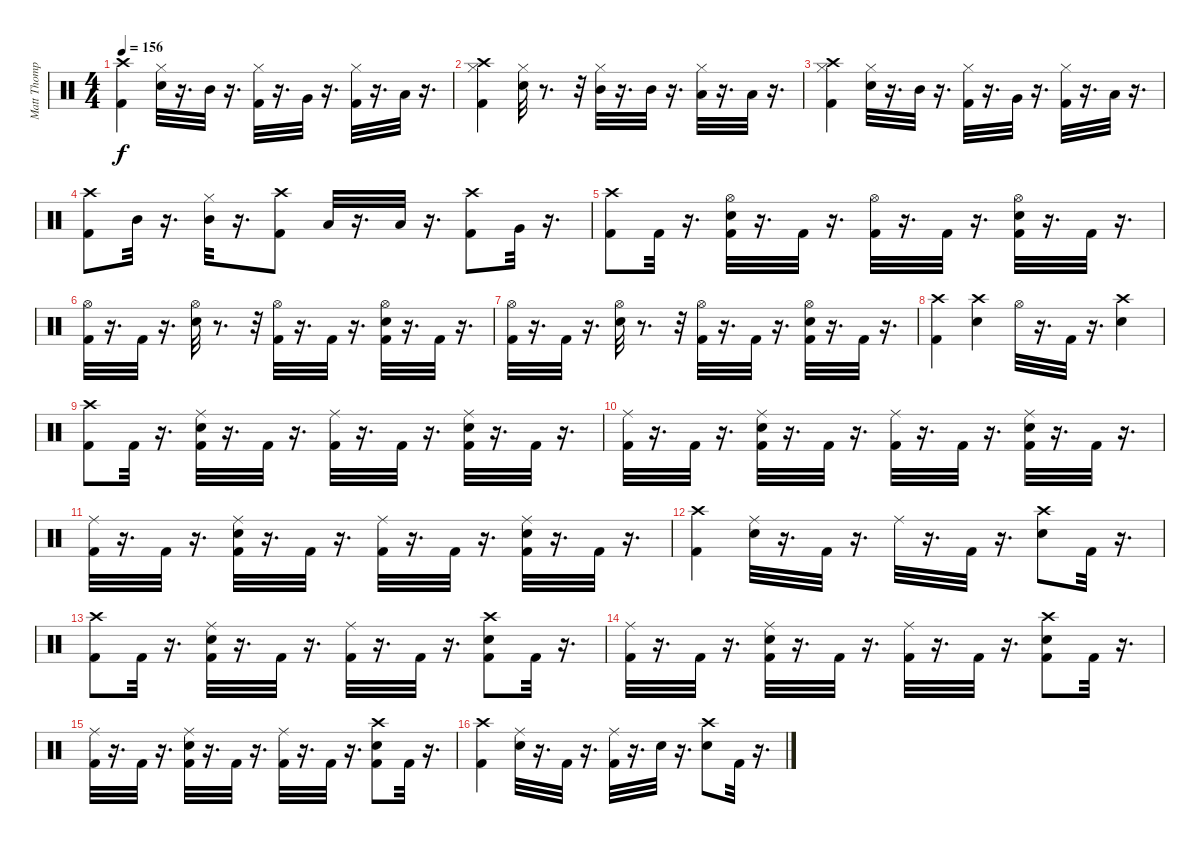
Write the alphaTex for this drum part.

\track ("Matt Thompson" "Matt Thomp") {instrument percussion}
\staff {score}
\articulation defaults
\ts (4 4)
\tempo 156
\clef neutral
\ks c
("Crash high (hit)" "Kick (hit) 2").4{dy f} ("Hi-Hat (closed)" "Snare (hit) 2").32 r.16{d} "Mid Tom (hit)".32 r.16{d} ("Hi-Hat (closed)" "Kick (hit) 2").32 r.16{d} "Very Low Tom (hit)".32 r.16{d} ("Hi-Hat (closed)" "Kick (hit) 2").32 r.16{d} "Low Floor Tom (hit)".32 r.16{d} |
("Hi-Hat (closed)" "Kick (hit) 2" "Crash high (hit)").4 ("Hi-Hat (closed)" "Snare (hit) 2").32 r.8{d} r.32 ("Hi-Hat (closed)" "Mid Tom (hit)").32 r.16{d} "Mid Tom (hit)".32 r.16{d} ("Hi-Hat (closed)" "Low Tom (hit)").32 r.16{d} "Low Tom (hit)".32 r.16{d} |
("Hi-Hat (closed)" "Crash high (hit)" "Kick (hit) 2").4 ("Hi-Hat (closed)" "Snare (hit) 2").32 r.16{d} "Mid Tom (hit)".32 r.16{d} ("Hi-Hat (closed)" "Kick (hit) 2").32 r.16{d} "Very Low Tom (hit)".32 r.16{d} ("Hi-Hat (closed)" "Kick (hit) 2").32 r.16{d} "Low Floor Tom (hit)".32 r.16{d} |
("Kick (hit) 2" "Crash high (hit)").8 "Mid Tom (hit)".32 r.16{d} ("Hi-Hat (closed)" "Mid Tom (hit)").32 r.16{d} ("Kick (hit) 2" "Crash high (hit)").8 "Low Tom (hit)".32 r.16{d} "Low Tom (hit)".32 r.16{d} ("Kick (hit) 2" "Crash high (hit)").8 "Very Low Tom (hit)".32 r.16{d} |
("Crash high (hit)" "Kick (hit) 2").8 "Kick (hit) 2".32 r.16{d} ("Hi-Hat (open)" "Snare (hit) 2" "Kick (hit) 2").32 r.16{d} "Kick (hit) 2".32 r.16{d} ("Hi-Hat (open)" "Kick (hit) 2").32 r.16{d} "Kick (hit) 2".32 r.16{d} ("Hi-Hat (open)" "Snare (hit) 2" "Kick (hit) 2").32 r.16{d} "Kick (hit) 2".32 r.16{d} |
("Hi-Hat (open)" "Kick (hit) 2").32 r.16{d} "Kick (hit) 2".32 r.16{d} ("Hi-Hat (open)" "Snare (hit) 2").32 r.8{d} r.32 ("Hi-Hat (open)" "Kick (hit) 2").32 r.16{d} "Kick (hit) 2".32 r.16{d} ("Hi-Hat (open)" "Snare (hit) 2" "Kick (hit) 2").32 r.16{d} "Kick (hit) 2".32 r.16{d} |
("Kick (hit) 2" "Hi-Hat (open)").32 r.16{d} "Kick (hit) 2".32 r.16{d} ("Snare (hit) 2" "Hi-Hat (open)").32 r.8{d} r.32 ("Kick (hit) 2" "Hi-Hat (open)").32 r.16{d} "Kick (hit) 2".32 r.16{d} ("Hi-Hat (open)" "Snare (hit) 2" "Kick (hit) 2").32 r.16{d} "Kick (hit) 2".32 r.16{d} |
("Crash high (hit)" "Kick (hit) 2").4 ("Crash high (hit)" "Snare (hit) 2").4 "Hi-Hat (open)".32 r.16{d} "Kick (hit) 2".32 r.16{d} ("Crash high (hit)" "Snare (hit) 2").4 |
("Crash high (hit)" "Kick (hit) 2").8 "Kick (hit) 2".32 r.16{d} ("Ride (middle)" "Snare (hit) 2" "Kick (hit) 2").32 r.16{d} "Kick (hit) 2".32 r.16{d} ("Ride (middle)" "Kick (hit) 2").32 r.16{d} "Kick (hit) 2".32 r.16{d} ("Ride (middle)" "Snare (hit) 2" "Kick (hit) 2").32 r.16{d} "Kick (hit) 2".32 r.16{d} |
("Ride (middle)" "Kick (hit) 2").32 r.16{d} "Kick (hit) 2".32 r.16{d} ("Ride (middle)" "Snare (hit) 2" "Kick (hit) 2").32 r.16{d} "Kick (hit) 2".32 r.16{d} ("Ride (middle)" "Kick (hit) 2").32 r.16{d} "Kick (hit) 2".32 r.16{d} ("Ride (middle)" "Snare (hit) 2" "Kick (hit) 2").32 r.16{d} "Kick (hit) 2".32 r.16{d} |
("Ride (middle)" "Kick (hit) 2").32 r.16{d} "Kick (hit) 2".32 r.16{d} ("Snare (hit) 2" "Ride (middle)" "Kick (hit) 2").32 r.16{d} "Kick (hit) 2".32 r.16{d} ("Ride (middle)" "Kick (hit) 2").32 r.16{d} "Kick (hit) 2".32 r.16{d} ("Ride (middle)" "Snare (hit) 2" "Kick (hit) 2").32 r.16{d} "Kick (hit) 2".32 r.16{d} |
("Crash high (hit)" "Kick (hit) 2").4 ("Ride (middle)" "Snare (hit) 2").32 r.16{d} "Kick (hit) 2".32 r.16{d} "Ride (middle)".32 r.16{d} "Kick (hit) 2".32 r.16{d} ("Crash high (hit)" "Snare (hit) 2").8 "Kick (hit) 2".32 r.16{d} |
("Crash high (hit)" "Kick (hit) 2").8 "Kick (hit) 2".32 r.16{d} ("Ride (middle)" "Snare (hit) 2" "Kick (hit) 2").32 r.16{d} "Kick (hit) 2".32 r.16{d} ("Ride (middle)" "Kick (hit) 2").32 r.16{d} "Kick (hit) 2".32 r.16{d} ("Crash high (hit)" "Snare (hit) 2" "Kick (hit) 2").8 "Kick (hit) 2".32 r.16{d} |
("Ride (middle)" "Kick (hit) 2").32 r.16{d} "Kick (hit) 2".32 r.16{d} ("Ride (middle)" "Snare (hit) 2" "Kick (hit) 2").32 r.16{d} "Kick (hit) 2".32 r.16{d} ("Ride (middle)" "Kick (hit) 2").32 r.16{d} "Kick (hit) 2".32 r.16{d} ("Crash high (hit)" "Snare (hit) 2" "Kick (hit) 2").8 "Kick (hit) 2".32 r.16{d} |
("Ride (middle)" "Kick (hit) 2").32 r.16{d} "Kick (hit) 2".32 r.16{d} ("Ride (middle)" "Snare (hit) 2" "Kick (hit) 2").32 r.16{d} "Kick (hit) 2".32 r.16{d} ("Ride (middle)" "Kick (hit) 2").32 r.16{d} "Kick (hit) 2".32 r.16{d} ("Crash high (hit)" "Snare (hit) 2" "Kick (hit) 2").8 "Kick (hit) 2".32 r.16{d} |
("Crash high (hit)" "Kick (hit) 2").4 ("Ride (middle)" "Snare (hit) 2").32 r.16{d} "Kick (hit) 2".32 r.16{d} ("Ride (middle)" "Kick (hit) 2").32 r.16{d} "Snare (hit) 2".32 r.16{d} ("Crash high (hit)" "Snare (hit) 2").8 "Kick (hit) 2".32 r.16{d}
